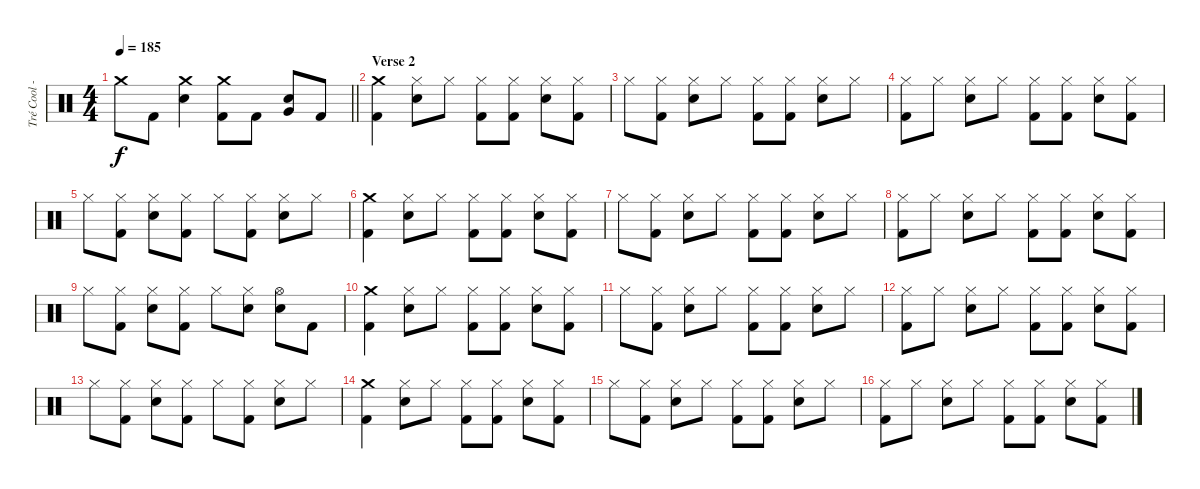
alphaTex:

\track ("Tré Cool - Drums" "Tré Cool -") {instrument percussion}
\staff {score}
\articulation defaults
\ts (4 4)
\tempo 185
\clef neutral
\barLineRight lightlight
\ks c "Crash medium (hit)".8{dy f} "Kick (hit) 2".8
("Crash medium (hit)" "Electric Snare (hit)").4 ("Crash medium (hit)" "Kick (hit) 2").8 "Kick (hit) 2".8 ("Very Low Tom (hit)" "Electric Snare (hit)").8 "Kick (hit) 2".8 |
\section ("" "Verse 2")
("Crash medium (hit)" "Kick (hit) 2").4 ("Hi-Hat (closed)" "Electric Snare (hit)").8 "Hi-Hat (closed)".8 ("Hi-Hat (closed)" "Kick (hit) 2").8 ("Hi-Hat (closed)" "Kick (hit) 2").8 ("Hi-Hat (closed)" "Electric Snare (hit)").8 ("Hi-Hat (closed)" "Kick (hit) 2").8 |
"Hi-Hat (closed)".8 ("Hi-Hat (closed)" "Kick (hit) 2").8 ("Hi-Hat (closed)" "Electric Snare (hit)").8 "Hi-Hat (closed)".8 ("Hi-Hat (closed)" "Kick (hit) 2").8 ("Hi-Hat (closed)" "Kick (hit) 2").8 ("Hi-Hat (closed)" "Electric Snare (hit)").8 "Hi-Hat (closed)".8 |
("Hi-Hat (closed)" "Kick (hit) 2").8 "Hi-Hat (closed)".8 ("Hi-Hat (closed)" "Electric Snare (hit)").8 "Hi-Hat (closed)".8 ("Hi-Hat (closed)" "Kick (hit) 2").8 ("Hi-Hat (closed)" "Kick (hit) 2").8 ("Hi-Hat (closed)" "Electric Snare (hit)").8 ("Hi-Hat (closed)" "Kick (hit) 2").8 |
"Hi-Hat (closed)".8 ("Hi-Hat (closed)" "Kick (hit) 2").8 ("Hi-Hat (closed)" "Electric Snare (hit)").8 ("Hi-Hat (closed)" "Kick (hit) 2").8 "Hi-Hat (closed)".8 ("Hi-Hat (closed)" "Kick (hit) 2").8 ("Hi-Hat (closed)" "Electric Snare (hit)").8 "Hi-Hat (closed)".8 |
("Crash medium (hit)" "Kick (hit) 2").4 ("Hi-Hat (closed)" "Electric Snare (hit)").8 "Hi-Hat (closed)".8 ("Hi-Hat (closed)" "Kick (hit) 2").8 ("Hi-Hat (closed)" "Kick (hit) 2").8 ("Hi-Hat (closed)" "Electric Snare (hit)").8 ("Hi-Hat (closed)" "Kick (hit) 2").8 |
"Hi-Hat (closed)".8 ("Hi-Hat (closed)" "Kick (hit) 2").8 ("Hi-Hat (closed)" "Electric Snare (hit)").8 "Hi-Hat (closed)".8 ("Hi-Hat (closed)" "Kick (hit) 2").8 ("Hi-Hat (closed)" "Kick (hit) 2").8 ("Hi-Hat (closed)" "Electric Snare (hit)").8 "Hi-Hat (closed)".8 |
("Hi-Hat (closed)" "Kick (hit) 2").8 "Hi-Hat (closed)".8 ("Hi-Hat (closed)" "Electric Snare (hit)").8 "Hi-Hat (closed)".8 ("Hi-Hat (closed)" "Kick (hit) 2").8 ("Hi-Hat (closed)" "Kick (hit) 2").8 ("Hi-Hat (closed)" "Electric Snare (hit)").8 ("Hi-Hat (closed)" "Kick (hit) 2").8 |
"Hi-Hat (closed)".8 ("Hi-Hat (closed)" "Kick (hit) 2").8 ("Hi-Hat (closed)" "Electric Snare (hit)").8 ("Hi-Hat (closed)" "Kick (hit) 2").8 "Hi-Hat (closed)".8 ("Hi-Hat (closed)" "Electric Snare (hit)").8 ("Hi-Hat (open)" "Electric Snare (hit)").8 "Kick (hit) 2".8 |
("Crash medium (hit)" "Kick (hit) 2").4 ("Hi-Hat (closed)" "Electric Snare (hit)").8 "Hi-Hat (closed)".8 ("Hi-Hat (closed)" "Kick (hit) 2").8 ("Hi-Hat (closed)" "Kick (hit) 2").8 ("Hi-Hat (closed)" "Electric Snare (hit)").8 ("Hi-Hat (closed)" "Kick (hit) 2").8 |
"Hi-Hat (closed)".8 ("Hi-Hat (closed)" "Kick (hit) 2").8 ("Hi-Hat (closed)" "Electric Snare (hit)").8 "Hi-Hat (closed)".8 ("Hi-Hat (closed)" "Kick (hit) 2").8 ("Hi-Hat (closed)" "Kick (hit) 2").8 ("Hi-Hat (closed)" "Electric Snare (hit)").8 "Hi-Hat (closed)".8 |
("Hi-Hat (closed)" "Kick (hit) 2").8 "Hi-Hat (closed)".8 ("Hi-Hat (closed)" "Electric Snare (hit)").8 "Hi-Hat (closed)".8 ("Hi-Hat (closed)" "Kick (hit) 2").8 ("Hi-Hat (closed)" "Kick (hit) 2").8 ("Hi-Hat (closed)" "Electric Snare (hit)").8 ("Hi-Hat (closed)" "Kick (hit) 2").8 |
"Hi-Hat (closed)".8 ("Hi-Hat (closed)" "Kick (hit) 2").8 ("Hi-Hat (closed)" "Electric Snare (hit)").8 ("Hi-Hat (closed)" "Kick (hit) 2").8 "Hi-Hat (closed)".8 ("Hi-Hat (closed)" "Kick (hit) 2").8 ("Hi-Hat (closed)" "Electric Snare (hit)").8 "Hi-Hat (closed)".8 |
("Crash medium (hit)" "Kick (hit) 2").4 ("Hi-Hat (closed)" "Electric Snare (hit)").8 "Hi-Hat (closed)".8 ("Hi-Hat (closed)" "Kick (hit) 2").8 ("Hi-Hat (closed)" "Kick (hit) 2").8 ("Hi-Hat (closed)" "Electric Snare (hit)").8 ("Hi-Hat (closed)" "Kick (hit) 2").8 |
"Hi-Hat (closed)".8 ("Hi-Hat (closed)" "Kick (hit) 2").8 ("Hi-Hat (closed)" "Electric Snare (hit)").8 "Hi-Hat (closed)".8 ("Hi-Hat (closed)" "Kick (hit) 2").8 ("Hi-Hat (closed)" "Kick (hit) 2").8 ("Hi-Hat (closed)" "Electric Snare (hit)").8 "Hi-Hat (closed)".8 |
("Hi-Hat (closed)" "Kick (hit) 2").8 "Hi-Hat (closed)".8 ("Hi-Hat (closed)" "Electric Snare (hit)").8 "Hi-Hat (closed)".8 ("Hi-Hat (closed)" "Kick (hit) 2").8 ("Hi-Hat (closed)" "Kick (hit) 2").8 ("Hi-Hat (closed)" "Electric Snare (hit)").8 ("Hi-Hat (closed)" "Kick (hit) 2").8
